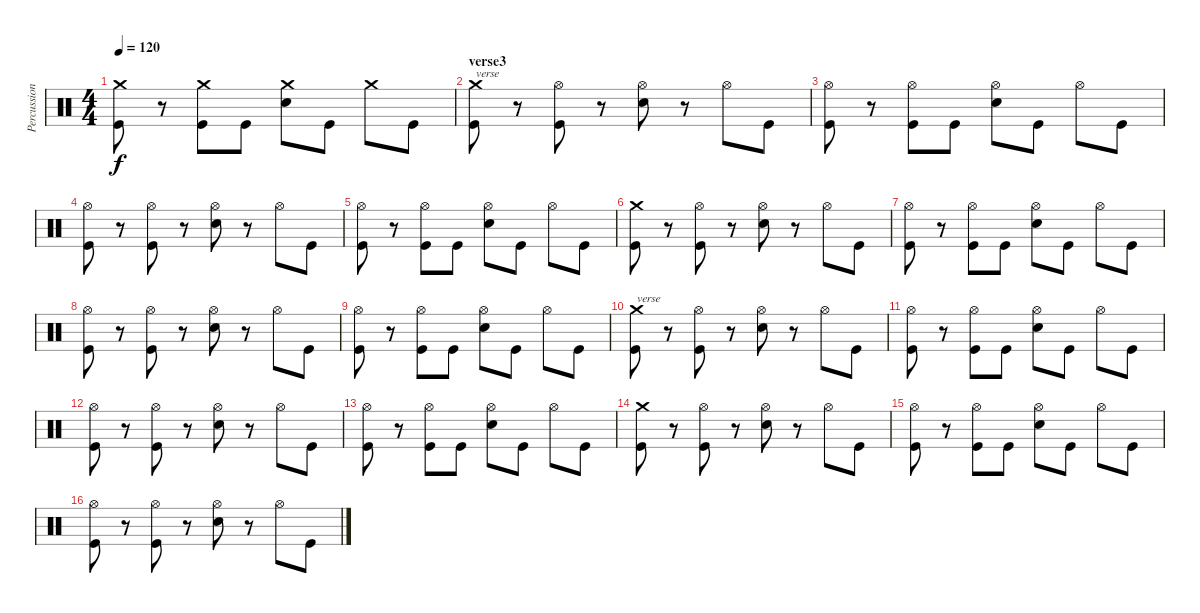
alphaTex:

\track ("Percussion" "Percussion") {instrument percussion}
\staff {score}
\articulation defaults
\ts (4 4)
\tempo 120
\clef neutral
\ks c
("Crash medium (hit)" "Kick (hit)").8{dy f} r.8 ("Crash medium (hit)" "Kick (hit)").8 "Kick (hit)".8 ("Crash medium (hit)" "Electric Snare (hit)").8 "Kick (hit)".8 "Crash medium (hit)".8 "Kick (hit)".8 |
\section ("" "verse3")
("Crash medium (hit)" "Kick (hit)").8{txt "verse"} r.8 ("Hi-Hat (open)" "Kick (hit)").8 r.8 ("Hi-Hat (open)" "Electric Snare (hit)").8 r.8 "Hi-Hat (open)".8 "Kick (hit)".8 |
("Hi-Hat (open)" "Kick (hit)").8 r.8 ("Hi-Hat (open)" "Kick (hit)").8 "Kick (hit)".8 ("Hi-Hat (open)" "Electric Snare (hit)").8 "Kick (hit)".8 "Hi-Hat (open)".8 "Kick (hit)".8 |
("Hi-Hat (open)" "Kick (hit)").8 r.8 ("Hi-Hat (open)" "Kick (hit)").8 r.8 ("Hi-Hat (open)" "Electric Snare (hit)").8 r.8 "Hi-Hat (open)".8 "Kick (hit)".8 |
("Hi-Hat (open)" "Kick (hit)").8 r.8 ("Hi-Hat (open)" "Kick (hit)").8 "Kick (hit)".8 ("Hi-Hat (open)" "Electric Snare (hit)").8 "Kick (hit)".8 "Hi-Hat (open)".8 "Kick (hit)".8 |
("Crash medium (hit)" "Kick (hit)").8 r.8 ("Hi-Hat (open)" "Kick (hit)").8 r.8 ("Hi-Hat (open)" "Electric Snare (hit)").8 r.8 "Hi-Hat (open)".8 "Kick (hit)".8 |
("Hi-Hat (open)" "Kick (hit)").8 r.8 ("Hi-Hat (open)" "Kick (hit)").8 "Kick (hit)".8 ("Hi-Hat (open)" "Electric Snare (hit)").8 "Kick (hit)".8 "Hi-Hat (open)".8 "Kick (hit)".8 |
("Hi-Hat (open)" "Kick (hit)").8 r.8 ("Hi-Hat (open)" "Kick (hit)").8 r.8 ("Hi-Hat (open)" "Electric Snare (hit)").8 r.8 "Hi-Hat (open)".8 "Kick (hit)".8 |
("Hi-Hat (open)" "Kick (hit)").8 r.8 ("Hi-Hat (open)" "Kick (hit)").8 "Kick (hit)".8 ("Hi-Hat (open)" "Electric Snare (hit)").8 "Kick (hit)".8 "Hi-Hat (open)".8 "Kick (hit)".8 |
("Crash medium (hit)" "Kick (hit)").8{txt "verse"} r.8 ("Hi-Hat (open)" "Kick (hit)").8 r.8 ("Hi-Hat (open)" "Electric Snare (hit)").8 r.8 "Hi-Hat (open)".8 "Kick (hit)".8 |
("Hi-Hat (open)" "Kick (hit)").8 r.8 ("Hi-Hat (open)" "Kick (hit)").8 "Kick (hit)".8 ("Hi-Hat (open)" "Electric Snare (hit)").8 "Kick (hit)".8 "Hi-Hat (open)".8 "Kick (hit)".8 |
("Hi-Hat (open)" "Kick (hit)").8 r.8 ("Hi-Hat (open)" "Kick (hit)").8 r.8 ("Hi-Hat (open)" "Electric Snare (hit)").8 r.8 "Hi-Hat (open)".8 "Kick (hit)".8 |
("Hi-Hat (open)" "Kick (hit)").8 r.8 ("Hi-Hat (open)" "Kick (hit)").8 "Kick (hit)".8 ("Hi-Hat (open)" "Electric Snare (hit)").8 "Kick (hit)".8 "Hi-Hat (open)".8 "Kick (hit)".8 |
("Crash medium (hit)" "Kick (hit)").8 r.8 ("Hi-Hat (open)" "Kick (hit)").8 r.8 ("Hi-Hat (open)" "Electric Snare (hit)").8 r.8 "Hi-Hat (open)".8 "Kick (hit)".8 |
("Hi-Hat (open)" "Kick (hit)").8 r.8 ("Hi-Hat (open)" "Kick (hit)").8 "Kick (hit)".8 ("Hi-Hat (open)" "Electric Snare (hit)").8 "Kick (hit)".8 "Hi-Hat (open)".8 "Kick (hit)".8 |
("Hi-Hat (open)" "Kick (hit)").8 r.8 ("Hi-Hat (open)" "Kick (hit)").8 r.8 ("Hi-Hat (open)" "Electric Snare (hit)").8 r.8 "Hi-Hat (open)".8 "Kick (hit)".8
